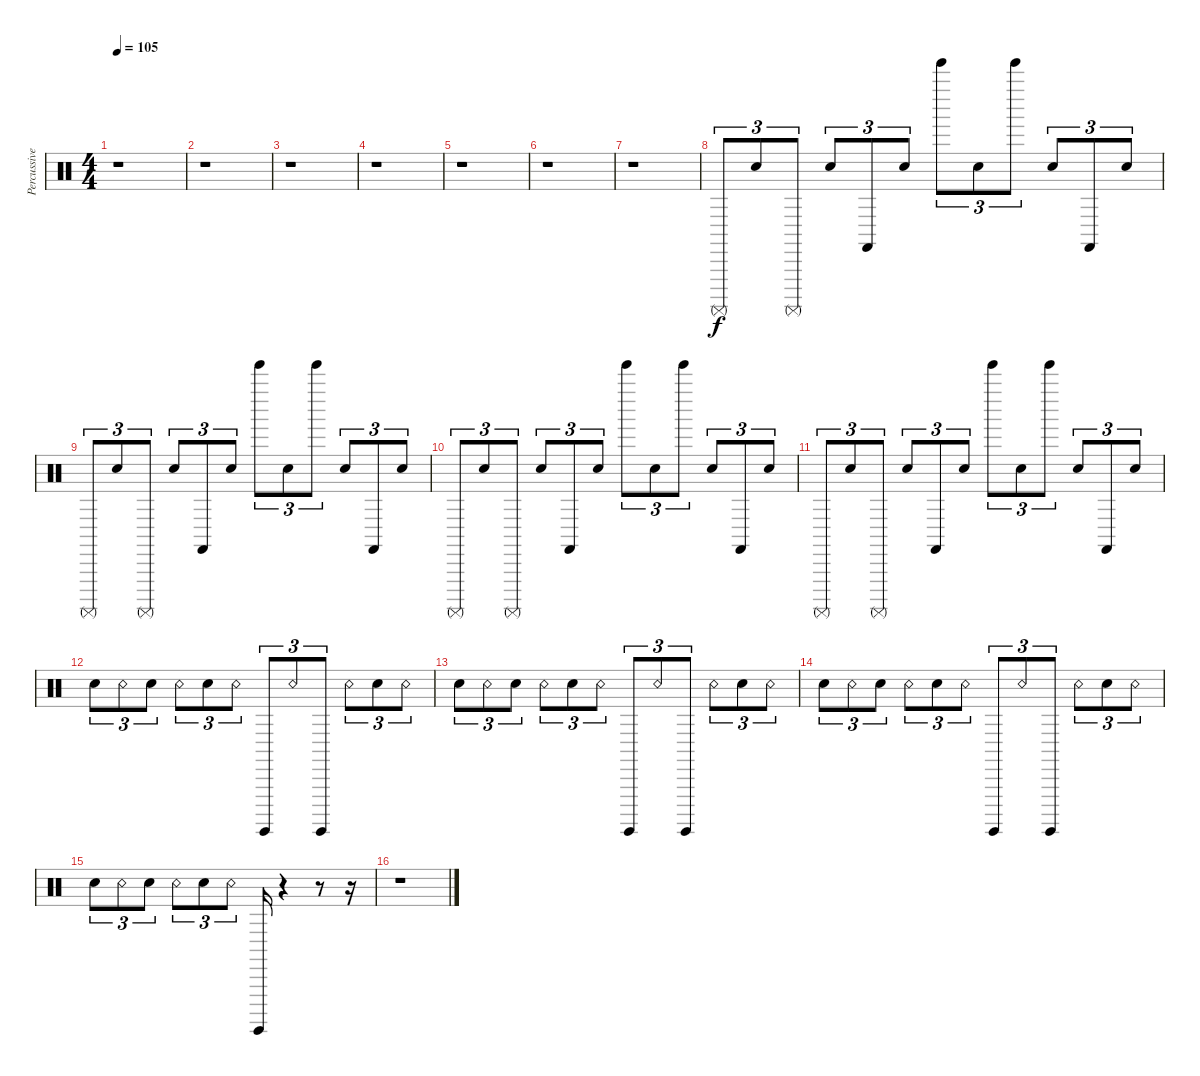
\track ("Percussive Organ" "Percussive") {instrument percussion}
\staff {score}
\articulation defaults
\ts (4 4)
\tempo 105
\clef neutral
\ks c
r.1{dy f} |
r.1 |
r.1 |
r.1 |
r.1 |
r.1 |
r.1 |
"Surdo (mute)".8{tu (3 2)} "Snare (hit)".8{tu (3 2)} "Surdo (mute)".8{tu (3 2)} "Snare (hit)".8{tu (3 2)} "Castanets (hit)".8{tu (3 2)} "Snare (hit)".8{tu (3 2)} "Tinkle Bell (hit)".8{tu (3 2)} "Snare (hit)".8{tu (3 2)} "Tinkle Bell (hit)".8{tu (3 2)} "Snare (hit)".8{tu (3 2)} "Castanets (hit)".8{tu (3 2)} "Snare (hit)".8{tu (3 2)} |
"Surdo (mute)".8{tu (3 2)} "Snare (hit)".8{tu (3 2)} "Surdo (mute)".8{tu (3 2)} "Snare (hit)".8{tu (3 2)} "Castanets (hit)".8{tu (3 2)} "Snare (hit)".8{tu (3 2)} "Tinkle Bell (hit)".8{tu (3 2)} "Snare (hit)".8{tu (3 2)} "Tinkle Bell (hit)".8{tu (3 2)} "Snare (hit)".8{tu (3 2)} "Castanets (hit)".8{tu (3 2)} "Snare (hit)".8{tu (3 2)} |
"Surdo (mute)".8{tu (3 2)} "Snare (hit)".8{tu (3 2)} "Surdo (mute)".8{tu (3 2)} "Snare (hit)".8{tu (3 2)} "Castanets (hit)".8{tu (3 2)} "Snare (hit)".8{tu (3 2)} "Tinkle Bell (hit)".8{tu (3 2)} "Snare (hit)".8{tu (3 2)} "Tinkle Bell (hit)".8{tu (3 2)} "Snare (hit)".8{tu (3 2)} "Castanets (hit)".8{tu (3 2)} "Snare (hit)".8{tu (3 2)} |
"Surdo (mute)".8{tu (3 2)} "Snare (hit)".8{tu (3 2)} "Surdo (mute)".8{tu (3 2)} "Snare (hit)".8{tu (3 2)} "Castanets (hit)".8{tu (3 2)} "Snare (hit)".8{tu (3 2)} "Tinkle Bell (hit)".8{tu (3 2)} "Snare (hit)".8{tu (3 2)} "Tinkle Bell (hit)".8{tu (3 2)} "Snare (hit)".8{tu (3 2)} "Castanets (hit)".8{tu (3 2)} "Snare (hit)".8{tu (3 2)} |
"Snare (hit)".8{tu (3 2)} "Snare (rim shot)".8{tu (3 2)} "Snare (hit)".8{tu (3 2)} "Snare (rim shot)".8{tu (3 2)} "Snare (hit)".8{tu (3 2)} "Snare (rim shot)".8{tu (3 2)} "Surdo (hit)".8{tu (3 2)} "Snare (rim shot)".8{tu (3 2)} "Surdo (hit)".8{tu (3 2)} "Snare (rim shot)".8{tu (3 2)} "Snare (hit)".8{tu (3 2)} "Snare (rim shot)".8{tu (3 2)} |
"Snare (hit)".8{tu (3 2)} "Snare (rim shot)".8{tu (3 2)} "Snare (hit)".8{tu (3 2)} "Snare (rim shot)".8{tu (3 2)} "Snare (hit)".8{tu (3 2)} "Snare (rim shot)".8{tu (3 2)} "Surdo (hit)".8{tu (3 2)} "Snare (rim shot)".8{tu (3 2)} "Surdo (hit)".8{tu (3 2)} "Snare (rim shot)".8{tu (3 2)} "Snare (hit)".8{tu (3 2)} "Snare (rim shot)".8{tu (3 2)} |
"Snare (hit)".8{tu (3 2)} "Snare (rim shot)".8{tu (3 2)} "Snare (hit)".8{tu (3 2)} "Snare (rim shot)".8{tu (3 2)} "Snare (hit)".8{tu (3 2)} "Snare (rim shot)".8{tu (3 2)} "Surdo (hit)".8{tu (3 2)} "Snare (rim shot)".8{tu (3 2)} "Surdo (hit)".8{tu (3 2)} "Snare (rim shot)".8{tu (3 2)} "Snare (hit)".8{tu (3 2)} "Snare (rim shot)".8{tu (3 2)} |
"Snare (hit)".8{tu (3 2)} "Snare (rim shot)".8{tu (3 2)} "Snare (hit)".8{tu (3 2)} "Snare (rim shot)".8{tu (3 2)} "Snare (hit)".8{tu (3 2)} "Snare (rim shot)".8{tu (3 2)} "Surdo (hit)".16 r.4 r.8 r.16 |
r.1
